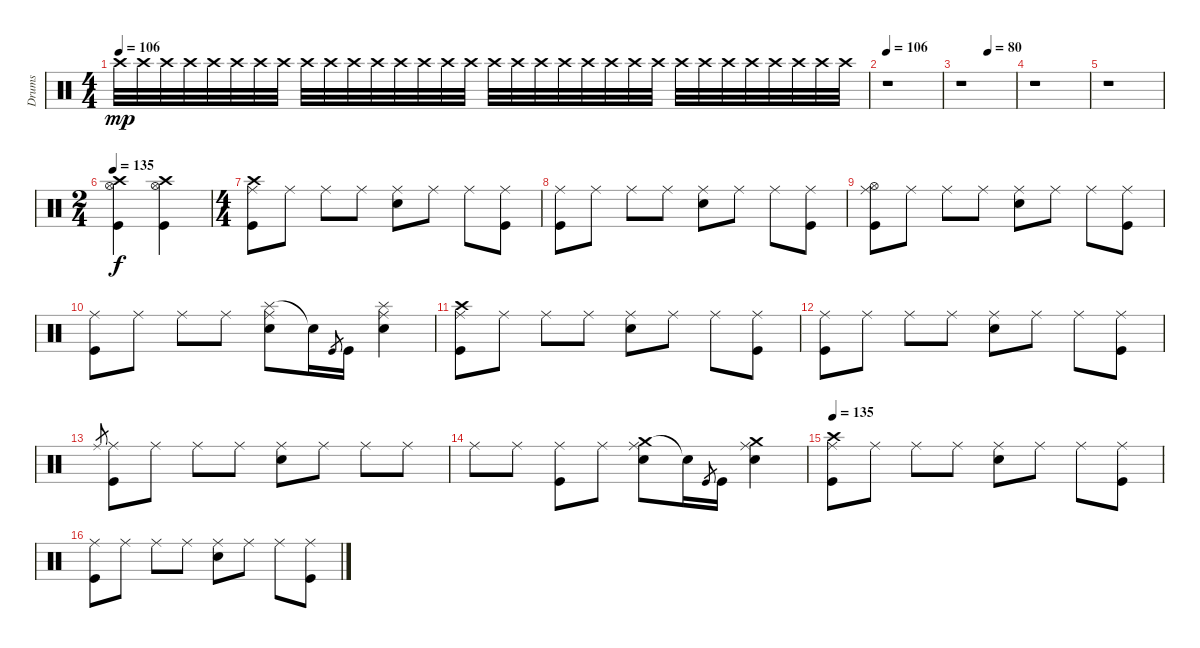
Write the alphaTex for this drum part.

\track ("Drums" "Drums") {instrument percussion}
\staff {score}
\articulation defaults
\ts (4 4)
\tempo 106
\clef neutral
\ks c "Crash high (hit)".32{dy mp} "Crash high (hit)".32 "Crash high (hit)".32 "Crash high (hit)".32 "Crash high (hit)".32 "Crash high (hit)".32 "Crash high (hit)".32 "Crash high (hit)".32 "Crash high (hit)".32 "Crash high (hit)".32 "Crash high (hit)".32 "Crash high (hit)".32 "Crash high (hit)".32 "Crash high (hit)".32 "Crash high (hit)".32 "Crash high (hit)".32 "Crash high (hit)".32 "Crash high (hit)".32 "Crash high (hit)".32 "Crash high (hit)".32 "Crash high (hit)".32 "Crash high (hit)".32 "Crash high (hit)".32 "Crash high (hit)".32 "Crash high (hit)".32 "Crash high (hit)".32 "Crash high (hit)".32 "Crash high (hit)".32 "Crash high (hit)".32 "Crash high (hit)".32 "Crash high (hit)".32 "Crash high (hit)".32
|
\tempo 106
r.1 |
\tempo (80 0.5)
r.1 |
r.1 |
r.1 |
\ts (2 4)
\tempo 135
("Crash high (hit)" "Hi-Hat (open)" "Kick (hit)").4{dy f volume 16} ("Crash high (hit)" "Hi-Hat (open)" "Kick (hit)").4 |
\ts (4 4)
("Crash high (hit)" "Ride (middle)" "Kick (hit)").8 "Ride (middle)".8 "Ride (middle)".8 "Ride (middle)".8 ("Ride (middle)" "Electric Snare (hit)").8 "Ride (middle)".8 "Ride (middle)".8 ("Ride (middle)" "Kick (hit)").8 |
("Ride (middle)" "Kick (hit)").8 "Ride (middle)".8 "Ride (middle)".8 "Ride (middle)".8 ("Ride (middle)" "Electric Snare (hit)").8 "Ride (middle)".8 "Ride (middle)".8 ("Ride (middle)" "Kick (hit)").8 |
("Hi-Hat (open)" "Ride (middle)" "Kick (hit)").8 "Ride (middle)".8 "Ride (middle)".8 "Ride (middle)".8 ("Ride (middle)" "Electric Snare (hit)").8 "Ride (middle)".8 "Ride (middle)".8 ("Ride (middle)" "Kick (hit)").8 |
("Ride (middle)" "Kick (hit)").8 "Ride (middle)".8 "Ride (middle)".8 "Ride (middle)".8 ("Splash (hit)" "Ride (middle)" "Electric Snare (hit)").8 "Snare (hit)"{t}.16 "Kick (hit)".8{gr} "Kick (hit)".16 ("Splash (hit)" "Ride (middle)" "Electric Snare (hit)").4 |
("Crash high (hit)" "Ride (middle)" "Kick (hit)").8 "Ride (middle)".8 "Ride (middle)".8 "Ride (middle)".8 ("Ride (middle)" "Electric Snare (hit)").8 "Ride (middle)".8 "Ride (middle)".8 ("Ride (middle)" "Kick (hit)").8 |
("Ride (middle)" "Kick (hit)").8 "Ride (middle)".8 "Ride (middle)".8 "Ride (middle)".8 ("Ride (middle)" "Electric Snare (hit)").8 "Ride (middle)".8 "Ride (middle)".8 ("Ride (middle)" "Kick (hit)").8 |
"Ride (middle)".8{gr} ("Ride (middle)" "Kick (hit)").8 "Ride (middle)".8 "Ride (middle)".8 "Ride (middle)".8 ("Ride (middle)" "Electric Snare (hit)").8 "Ride (middle)".8 "Ride (middle)".8 "Ride (middle)".8 |
"Ride (middle)".8 "Ride (middle)".8 ("Ride (middle)" "Kick (hit)").8 "Ride (middle)".8 ("Crash medium (hit)" "Ride (middle)" "Electric Snare (hit)").8 "Snare (hit)"{t}.16 "Kick (hit)".8{gr} "Kick (hit)".16 ("Crash medium (hit)" "Ride (middle)" "Electric Snare (hit)").4 |
\tempo 135
("Crash high (hit)" "Ride (middle)" "Kick (hit)").8 "Ride (middle)".8 "Ride (middle)".8 "Ride (middle)".8 ("Ride (middle)" "Electric Snare (hit)").8 "Ride (middle)".8 "Ride (middle)".8 ("Ride (middle)" "Kick (hit)").8 |
("Ride (middle)" "Kick (hit)").8 "Ride (middle)".8 "Ride (middle)".8 "Ride (middle)".8 ("Ride (middle)" "Electric Snare (hit)").8 "Ride (middle)".8 "Ride (middle)".8 ("Ride (middle)" "Kick (hit)").8
